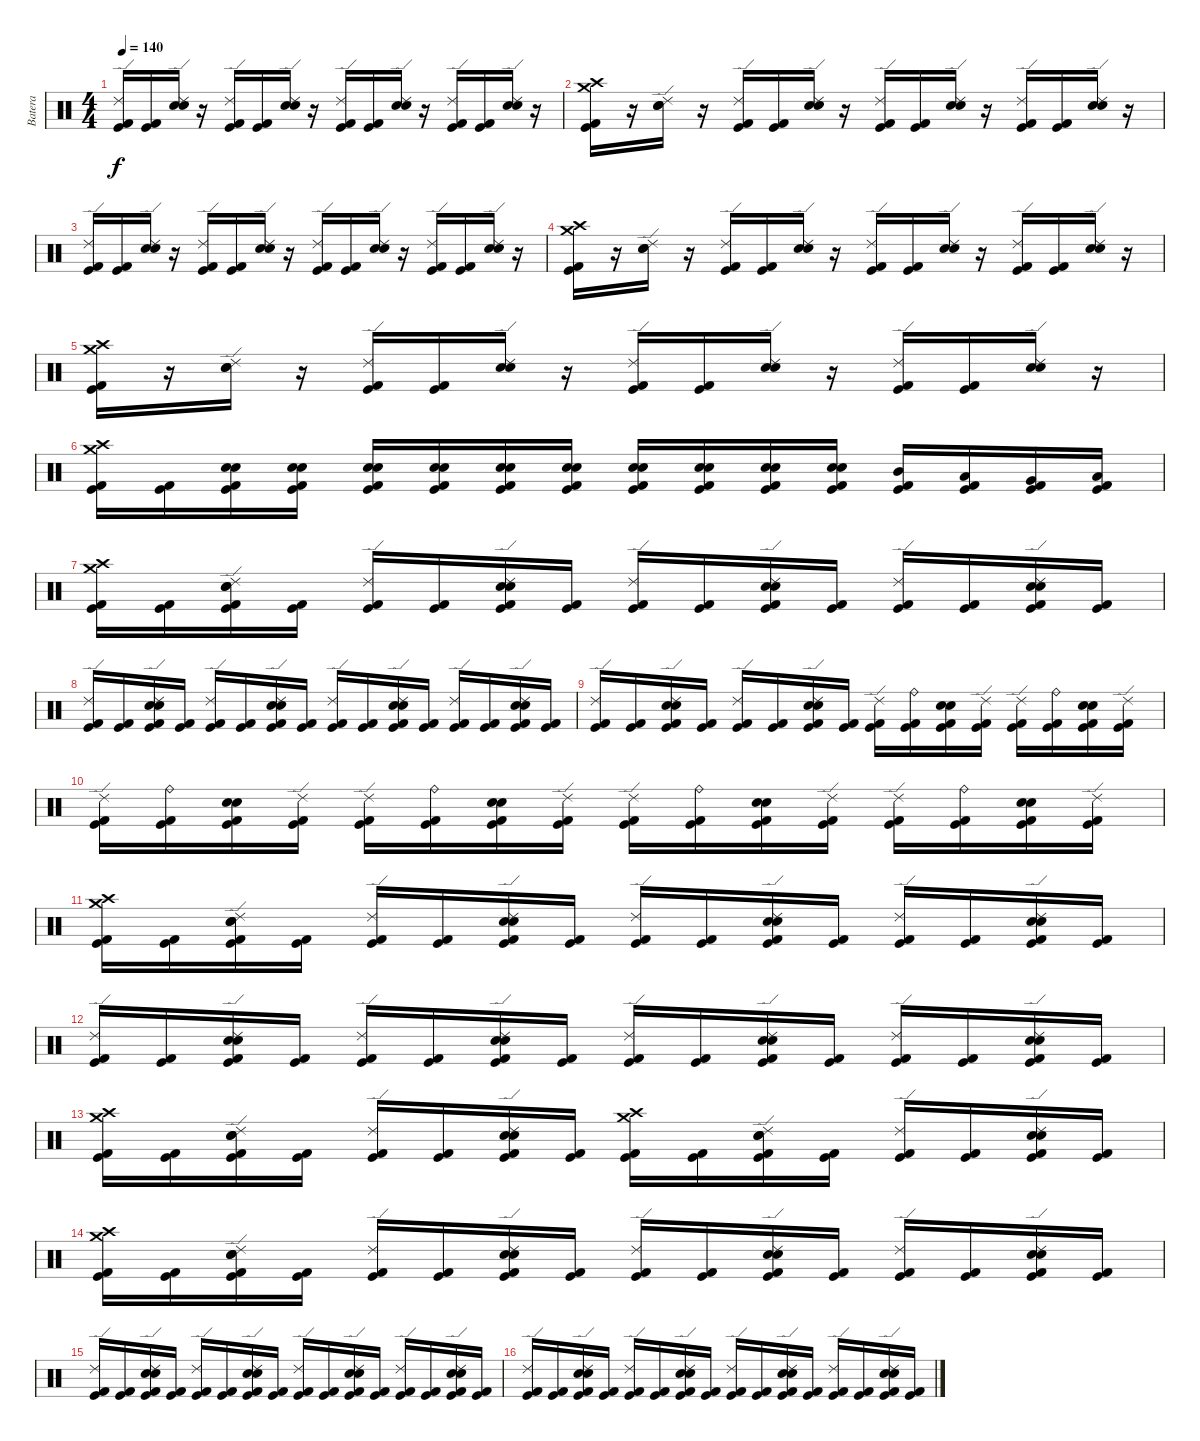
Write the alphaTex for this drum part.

\track ("Batera" "Batera") {instrument percussion}
\staff {score}
\articulation defaults
\ts (4 4)
\tempo 140
\clef neutral
\ks c
("Ride (edge) 2" "Kick (hit) 2" "Kick (hit)").16{dy f} ("Kick (hit) 2" "Kick (hit)").16 ("Ride (edge) 2" "Electric Snare (hit)" "Snare (hit) 2").16 r.16 ("Ride (edge) 2" "Kick (hit) 2" "Kick (hit)").16 ("Kick (hit) 2" "Kick (hit)").16 ("Ride (edge) 2" "Snare (hit) 2" "Electric Snare (hit)").16 r.16 ("Ride (edge) 2" "Kick (hit) 2" "Kick (hit)").16 ("Kick (hit) 2" "Kick (hit)").16 ("Ride (edge) 2" "Electric Snare (hit)" "Snare (hit) 2").16 r.16 ("Ride (edge) 2" "Kick (hit) 2" "Kick (hit)").16 ("Kick (hit) 2" "Kick (hit)").16 ("Ride (edge) 2" "Electric Snare (hit)" "Snare (hit) 2").16 r.16 |
("Crash high (hit)" "Crash medium (hit)" "Kick (hit) 2" "Kick (hit)").16 r.16 ("Ride (edge) 2" "Electric Snare (hit)" "Snare (hit) 2").16 r.16 ("Ride (edge) 2" "Kick (hit) 2" "Kick (hit)").16 ("Kick (hit) 2" "Kick (hit)").16 ("Ride (edge) 2" "Electric Snare (hit)" "Snare (hit) 2").16 r.16 ("Ride (edge) 2" "Kick (hit) 2" "Kick (hit)").16 ("Kick (hit) 2" "Kick (hit)").16 ("Ride (edge) 2" "Electric Snare (hit)" "Snare (hit) 2").16 r.16 ("Ride (edge) 2" "Kick (hit) 2" "Kick (hit)").16 ("Kick (hit) 2" "Kick (hit)").16 ("Ride (edge) 2" "Electric Snare (hit)" "Snare (hit) 2").16 r.16 |
("Ride (edge) 2" "Kick (hit) 2" "Kick (hit)").16 ("Kick (hit) 2" "Kick (hit)").16 ("Ride (edge) 2" "Electric Snare (hit)" "Snare (hit) 2").16 r.16 ("Ride (edge) 2" "Kick (hit) 2" "Kick (hit)").16 ("Kick (hit) 2" "Kick (hit)").16 ("Ride (edge) 2" "Snare (hit) 2" "Electric Snare (hit)").16 r.16 ("Ride (edge) 2" "Kick (hit) 2" "Kick (hit)").16 ("Kick (hit) 2" "Kick (hit)").16 ("Ride (edge) 2" "Electric Snare (hit)" "Snare (hit) 2").16 r.16 ("Ride (edge) 2" "Kick (hit) 2" "Kick (hit)").16 ("Kick (hit) 2" "Kick (hit)").16 ("Ride (edge) 2" "Electric Snare (hit)" "Snare (hit) 2").16 r.16 |
("Crash high (hit)" "Crash medium (hit)" "Kick (hit) 2" "Kick (hit)").16 r.16 ("Ride (edge) 2" "Electric Snare (hit)" "Snare (hit) 2").16 r.16 ("Ride (edge) 2" "Kick (hit) 2" "Kick (hit)").16 ("Kick (hit) 2" "Kick (hit)").16 ("Ride (edge) 2" "Electric Snare (hit)" "Snare (hit) 2").16 r.16 ("Ride (edge) 2" "Kick (hit) 2" "Kick (hit)").16 ("Kick (hit) 2" "Kick (hit)").16 ("Ride (edge) 2" "Electric Snare (hit)" "Snare (hit) 2").16 r.16 ("Ride (edge) 2" "Kick (hit) 2" "Kick (hit)").16 ("Kick (hit) 2" "Kick (hit)").16 ("Ride (edge) 2" "Electric Snare (hit)" "Snare (hit) 2").16 r.16 |
("Crash medium (hit)" "Crash high (hit)" "Kick (hit) 2" "Kick (hit)").16 r.16 ("Ride (edge) 2" "Electric Snare (hit)" "Snare (hit) 2").16 r.16 ("Ride (edge) 2" "Kick (hit) 2" "Kick (hit)").16 ("Kick (hit) 2" "Kick (hit)").16 ("Ride (edge) 2" "Snare (hit) 2" "Electric Snare (hit)").16 r.16 ("Ride (edge) 2" "Kick (hit) 2" "Kick (hit)").16 ("Kick (hit) 2" "Kick (hit)").16 ("Ride (edge) 2" "Electric Snare (hit)" "Snare (hit) 2").16 r.16 ("Ride (edge) 2" "Kick (hit) 2" "Kick (hit)").16 ("Kick (hit) 2" "Kick (hit)").16 ("Ride (edge) 2" "Electric Snare (hit)" "Snare (hit) 2").16 r.16 |
("Crash high (hit)" "Crash medium (hit)" "Kick (hit) 2" "Kick (hit)").16 ("Kick (hit) 2" "Kick (hit)").16 ("Electric Snare (hit)" "Snare (hit) 2" "Kick (hit) 2" "Kick (hit)").16 ("Electric Snare (hit)" "Snare (hit) 2" "Kick (hit) 2" "Kick (hit)").16 ("Electric Snare (hit)" "Snare (hit) 2" "Kick (hit) 2" "Kick (hit)").16 ("Electric Snare (hit)" "Snare (hit) 2" "Kick (hit) 2" "Kick (hit)").16 ("Electric Snare (hit)" "Snare (hit) 2" "Kick (hit) 2" "Kick (hit)").16 ("Electric Snare (hit)" "Snare (hit) 2" "Kick (hit) 2" "Kick (hit)").16 ("Electric Snare (hit)" "Snare (hit) 2" "Kick (hit) 2" "Kick (hit)").16 ("Electric Snare (hit)" "Snare (hit) 2" "Kick (hit) 2" "Kick (hit)").16 ("Electric Snare (hit)" "Snare (hit) 2" "Kick (hit) 2" "Kick (hit)").16 ("Electric Snare (hit)" "Snare (hit) 2" "Kick (hit) 2" "Kick (hit)").16 ("Mid Tom (hit)" "Kick (hit) 2" "Kick (hit)").16 ("Low Tom (hit)" "Kick (hit) 2" "Kick (hit)").16 ("Very Low Tom (hit)" "Kick (hit) 2" "Kick (hit)").16 ("Low Floor Tom (hit)" "Kick (hit) 2" "Kick (hit)").16 |
("Crash high (hit)" "Crash medium (hit)" "Kick (hit) 2" "Kick (hit)").16 ("Kick (hit) 2" "Kick (hit)").16 ("Ride (edge) 2" "Electric Snare (hit)" "Snare (hit) 2" "Kick (hit) 2" "Kick (hit)").16 ("Kick (hit) 2" "Kick (hit)").16 ("Ride (edge) 2" "Kick (hit) 2" "Kick (hit)").16 ("Kick (hit) 2" "Kick (hit)").16 ("Ride (edge) 2" "Electric Snare (hit)" "Snare (hit) 2" "Kick (hit) 2" "Kick (hit)").16 ("Kick (hit) 2" "Kick (hit)").16 ("Ride (edge) 2" "Kick (hit) 2" "Kick (hit)").16 ("Kick (hit) 2" "Kick (hit)").16 ("Ride (edge) 2" "Electric Snare (hit)" "Snare (hit) 2" "Kick (hit) 2" "Kick (hit)").16 ("Kick (hit) 2" "Kick (hit)").16 ("Ride (edge) 2" "Kick (hit) 2" "Kick (hit)").16 ("Kick (hit) 2" "Kick (hit)").16 ("Ride (edge) 2" "Electric Snare (hit)" "Snare (hit) 2" "Kick (hit) 2" "Kick (hit)").16 ("Kick (hit) 2" "Kick (hit)").16 |
("Ride (edge) 2" "Kick (hit) 2" "Kick (hit)").16 ("Kick (hit) 2" "Kick (hit)").16 ("Ride (edge) 2" "Electric Snare (hit)" "Snare (hit) 2" "Kick (hit) 2" "Kick (hit)").16 ("Kick (hit) 2" "Kick (hit)").16 ("Ride (edge) 2" "Kick (hit) 2" "Kick (hit)").16 ("Kick (hit) 2" "Kick (hit)").16 ("Ride (edge) 2" "Electric Snare (hit)" "Snare (hit) 2" "Kick (hit) 2" "Kick (hit)").16 ("Kick (hit) 2" "Kick (hit)").16 ("Ride (edge) 2" "Kick (hit) 2" "Kick (hit)").16 ("Kick (hit) 2" "Kick (hit)").16 ("Ride (edge) 2" "Electric Snare (hit)" "Snare (hit) 2" "Kick (hit) 2" "Kick (hit)").16 ("Kick (hit) 2" "Kick (hit)").16 ("Ride (edge) 2" "Kick (hit) 2" "Kick (hit)").16 ("Kick (hit) 2" "Kick (hit)").16 ("Ride (edge) 2" "Electric Snare (hit)" "Snare (hit) 2" "Kick (hit) 2" "Kick (hit)").16 ("Kick (hit) 2" "Kick (hit)").16 |
("Ride (edge) 2" "Kick (hit) 2" "Kick (hit)").16 ("Kick (hit) 2" "Kick (hit)").16 ("Ride (edge) 2" "Electric Snare (hit)" "Snare (hit) 2" "Kick (hit) 2" "Kick (hit)").16 ("Kick (hit) 2" "Kick (hit)").16 ("Ride (edge) 2" "Kick (hit) 2" "Kick (hit)").16 ("Kick (hit) 2" "Kick (hit)").16 ("Ride (edge) 2" "Electric Snare (hit)" "Snare (hit) 2" "Kick (hit) 2" "Kick (hit)").16 ("Kick (hit) 2" "Kick (hit)").16 ("Ride (edge) 2" "Kick (hit) 2" "Kick (hit)").16 ("Ride (bell)" "Kick (hit) 2" "Kick (hit)").16 ("Electric Snare (hit)" "Snare (hit) 2" "Kick (hit) 2" "Kick (hit)").16 ("Ride (edge) 2" "Kick (hit) 2" "Kick (hit)").16 ("Ride (edge) 2" "Kick (hit) 2" "Kick (hit)").16 ("Ride (bell)" "Kick (hit) 2" "Kick (hit)").16 ("Electric Snare (hit)" "Snare (hit) 2" "Kick (hit) 2" "Kick (hit)").16 ("Ride (edge) 2" "Kick (hit) 2" "Kick (hit)").16 |
("Ride (edge) 2" "Kick (hit) 2" "Kick (hit)").16 ("Ride (bell)" "Kick (hit) 2" "Kick (hit)").16 ("Electric Snare (hit)" "Snare (hit) 2" "Kick (hit) 2" "Kick (hit)").16 ("Ride (edge) 2" "Kick (hit) 2" "Kick (hit)").16 ("Ride (edge) 2" "Kick (hit) 2" "Kick (hit)").16 ("Ride (bell)" "Kick (hit) 2" "Kick (hit)").16 ("Electric Snare (hit)" "Snare (hit) 2" "Kick (hit) 2" "Kick (hit)").16 ("Ride (edge) 2" "Kick (hit) 2" "Kick (hit)").16 ("Ride (edge) 2" "Kick (hit) 2" "Kick (hit)").16 ("Ride (bell)" "Kick (hit) 2" "Kick (hit)").16 ("Electric Snare (hit)" "Snare (hit) 2" "Kick (hit) 2" "Kick (hit)").16 ("Ride (edge) 2" "Kick (hit) 2" "Kick (hit)").16 ("Ride (edge) 2" "Kick (hit) 2" "Kick (hit)").16 ("Ride (bell)" "Kick (hit) 2" "Kick (hit)").16 ("Electric Snare (hit)" "Snare (hit) 2" "Kick (hit) 2" "Kick (hit)").16 ("Ride (edge) 2" "Kick (hit) 2" "Kick (hit)").16 |
("Crash high (hit)" "Crash medium (hit)" "Kick (hit) 2" "Kick (hit)").16 ("Kick (hit) 2" "Kick (hit)").16 ("Ride (edge) 2" "Electric Snare (hit)" "Snare (hit) 2" "Kick (hit) 2" "Kick (hit)").16 ("Kick (hit) 2" "Kick (hit)").16 ("Ride (edge) 2" "Kick (hit) 2" "Kick (hit)").16 ("Kick (hit) 2" "Kick (hit)").16 ("Ride (edge) 2" "Electric Snare (hit)" "Snare (hit) 2" "Kick (hit) 2" "Kick (hit)").16 ("Kick (hit) 2" "Kick (hit)").16 ("Ride (edge) 2" "Kick (hit) 2" "Kick (hit)").16 ("Kick (hit) 2" "Kick (hit)").16 ("Ride (edge) 2" "Electric Snare (hit)" "Snare (hit) 2" "Kick (hit) 2" "Kick (hit)").16 ("Kick (hit) 2" "Kick (hit)").16 ("Ride (edge) 2" "Kick (hit) 2" "Kick (hit)").16 ("Kick (hit) 2" "Kick (hit)").16 ("Ride (edge) 2" "Electric Snare (hit)" "Snare (hit) 2" "Kick (hit) 2" "Kick (hit)").16 ("Kick (hit) 2" "Kick (hit)").16 |
("Ride (edge) 2" "Kick (hit) 2" "Kick (hit)").16 ("Kick (hit) 2" "Kick (hit)").16 ("Ride (edge) 2" "Electric Snare (hit)" "Snare (hit) 2" "Kick (hit) 2" "Kick (hit)").16 ("Kick (hit) 2" "Kick (hit)").16 ("Ride (edge) 2" "Kick (hit) 2" "Kick (hit)").16 ("Kick (hit) 2" "Kick (hit)").16 ("Ride (edge) 2" "Electric Snare (hit)" "Snare (hit) 2" "Kick (hit) 2" "Kick (hit)").16 ("Kick (hit) 2" "Kick (hit)").16 ("Ride (edge) 2" "Kick (hit) 2" "Kick (hit)").16 ("Kick (hit) 2" "Kick (hit)").16 ("Ride (edge) 2" "Electric Snare (hit)" "Snare (hit) 2" "Kick (hit) 2" "Kick (hit)").16 ("Kick (hit) 2" "Kick (hit)").16 ("Ride (edge) 2" "Kick (hit) 2" "Kick (hit)").16 ("Kick (hit) 2" "Kick (hit)").16 ("Ride (edge) 2" "Electric Snare (hit)" "Snare (hit) 2" "Kick (hit) 2" "Kick (hit)").16 ("Kick (hit) 2" "Kick (hit)").16 |
("Crash high (hit)" "Crash medium (hit)" "Kick (hit) 2" "Kick (hit)").16 ("Kick (hit) 2" "Kick (hit)").16 ("Ride (edge) 2" "Electric Snare (hit)" "Snare (hit) 2" "Kick (hit) 2" "Kick (hit)").16 ("Kick (hit) 2" "Kick (hit)").16 ("Ride (edge) 2" "Kick (hit) 2" "Kick (hit)").16 ("Kick (hit) 2" "Kick (hit)").16 ("Ride (edge) 2" "Electric Snare (hit)" "Snare (hit) 2" "Kick (hit) 2" "Kick (hit)").16 ("Kick (hit) 2" "Kick (hit)").16 ("Crash high (hit)" "Crash medium (hit)" "Kick (hit) 2" "Kick (hit)").16 ("Kick (hit) 2" "Kick (hit)").16 ("Ride (edge) 2" "Electric Snare (hit)" "Snare (hit) 2" "Kick (hit) 2" "Kick (hit)").16 ("Kick (hit) 2" "Kick (hit)").16 ("Ride (edge) 2" "Kick (hit) 2" "Kick (hit)").16 ("Kick (hit) 2" "Kick (hit)").16 ("Ride (edge) 2" "Electric Snare (hit)" "Snare (hit) 2" "Kick (hit) 2" "Kick (hit)").16 ("Kick (hit) 2" "Kick (hit)").16 |
("Crash high (hit)" "Crash medium (hit)" "Kick (hit) 2" "Kick (hit)").16 ("Kick (hit) 2" "Kick (hit)").16 ("Ride (edge) 2" "Electric Snare (hit)" "Snare (hit) 2" "Kick (hit) 2" "Kick (hit)").16 ("Kick (hit) 2" "Kick (hit)").16 ("Ride (edge) 2" "Kick (hit) 2" "Kick (hit)").16 ("Kick (hit) 2" "Kick (hit)").16 ("Ride (edge) 2" "Electric Snare (hit)" "Snare (hit) 2" "Kick (hit) 2" "Kick (hit)").16 ("Kick (hit) 2" "Kick (hit)").16 ("Ride (edge) 2" "Kick (hit) 2" "Kick (hit)").16 ("Kick (hit) 2" "Kick (hit)").16 ("Ride (edge) 2" "Electric Snare (hit)" "Snare (hit) 2" "Kick (hit) 2" "Kick (hit)").16 ("Kick (hit) 2" "Kick (hit)").16 ("Ride (edge) 2" "Kick (hit) 2" "Kick (hit)").16 ("Kick (hit) 2" "Kick (hit)").16 ("Ride (edge) 2" "Electric Snare (hit)" "Snare (hit) 2" "Kick (hit) 2" "Kick (hit)").16 ("Kick (hit) 2" "Kick (hit)").16 |
("Ride (edge) 2" "Kick (hit) 2" "Kick (hit)").16 ("Kick (hit) 2" "Kick (hit)").16 ("Ride (edge) 2" "Electric Snare (hit)" "Snare (hit) 2" "Kick (hit) 2" "Kick (hit)").16 ("Kick (hit) 2" "Kick (hit)").16 ("Ride (edge) 2" "Kick (hit) 2" "Kick (hit)").16 ("Kick (hit) 2" "Kick (hit)").16 ("Ride (edge) 2" "Electric Snare (hit)" "Snare (hit) 2" "Kick (hit) 2" "Kick (hit)").16 ("Kick (hit) 2" "Kick (hit)").16 ("Ride (edge) 2" "Kick (hit) 2" "Kick (hit)").16 ("Kick (hit) 2" "Kick (hit)").16 ("Ride (edge) 2" "Electric Snare (hit)" "Snare (hit) 2" "Kick (hit) 2" "Kick (hit)").16 ("Kick (hit) 2" "Kick (hit)").16 ("Ride (edge) 2" "Kick (hit) 2" "Kick (hit)").16 ("Kick (hit) 2" "Kick (hit)").16 ("Ride (edge) 2" "Electric Snare (hit)" "Snare (hit) 2" "Kick (hit) 2" "Kick (hit)").16 ("Kick (hit) 2" "Kick (hit)").16 |
("Ride (edge) 2" "Kick (hit) 2" "Kick (hit)").16 ("Kick (hit) 2" "Kick (hit)").16 ("Ride (edge) 2" "Electric Snare (hit)" "Snare (hit) 2" "Kick (hit) 2" "Kick (hit)").16 ("Kick (hit) 2" "Kick (hit)").16 ("Ride (edge) 2" "Kick (hit) 2" "Kick (hit)").16 ("Kick (hit) 2" "Kick (hit)").16 ("Ride (edge) 2" "Electric Snare (hit)" "Snare (hit) 2" "Kick (hit) 2" "Kick (hit)").16 ("Kick (hit) 2" "Kick (hit)").16 ("Ride (edge) 2" "Kick (hit) 2" "Kick (hit)").16 ("Kick (hit) 2" "Kick (hit)").16 ("Ride (edge) 2" "Electric Snare (hit)" "Snare (hit) 2" "Kick (hit) 2" "Kick (hit)").16 ("Kick (hit) 2" "Kick (hit)").16 ("Ride (edge) 2" "Kick (hit) 2" "Kick (hit)").16 ("Kick (hit) 2" "Kick (hit)").16 ("Ride (edge) 2" "Electric Snare (hit)" "Snare (hit) 2" "Kick (hit) 2" "Kick (hit)").16 ("Kick (hit) 2" "Kick (hit)").16
